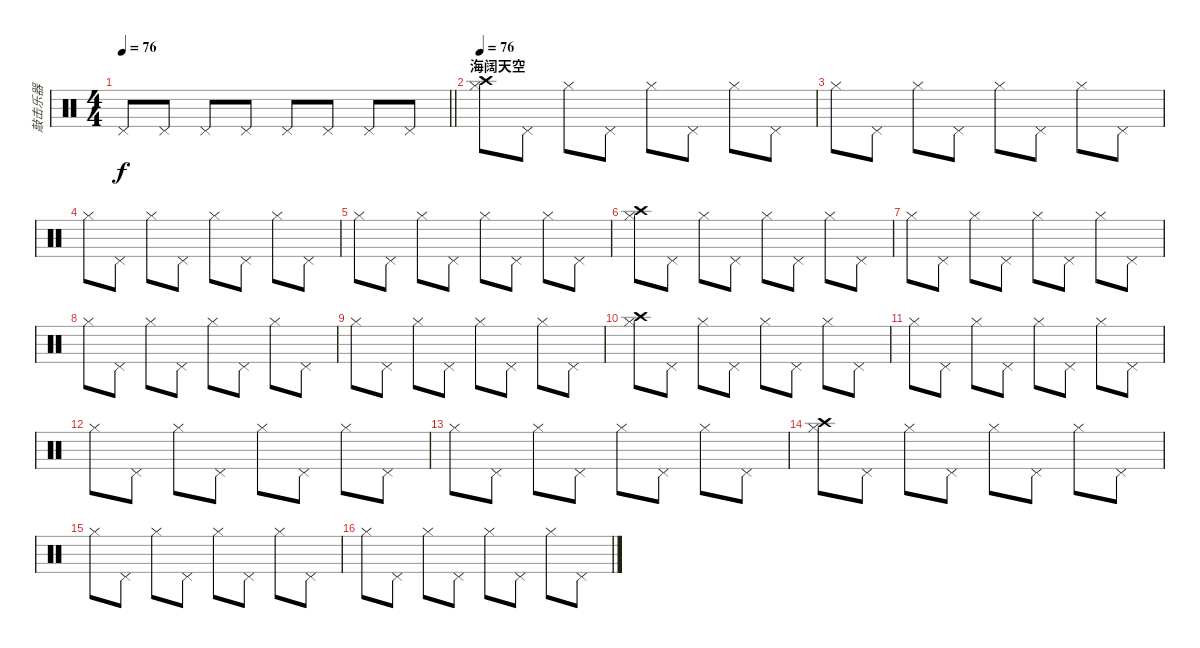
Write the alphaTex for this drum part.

\track ("敲击乐器" "敲击乐器") {instrument percussion}
\staff {score}
\articulation defaults
\ts (4 4)
\tempo 76
\clef neutral
\barLineRight lightlight
\ks c "Pedal Hi-Hat (hit)".8{dy f} "Pedal Hi-Hat (hit)".8 "Pedal Hi-Hat (hit)".8 "Pedal Hi-Hat (hit)".8 "Pedal Hi-Hat (hit)".8 "Pedal Hi-Hat (hit)".8 "Pedal Hi-Hat (hit)".8 "Pedal Hi-Hat (hit)".8
|
\section ("" "海阔天空")
\tempo 76
("Hi-Hat (closed)" "Crash high (hit)").8 "Pedal Hi-Hat (hit)".8 "Hi-Hat (closed)".8 "Pedal Hi-Hat (hit)".8 "Hi-Hat (closed)".8 "Pedal Hi-Hat (hit)".8 "Hi-Hat (closed)".8 "Pedal Hi-Hat (hit)".8 |
"Hi-Hat (closed)".8 "Pedal Hi-Hat (hit)".8 "Hi-Hat (closed)".8 "Pedal Hi-Hat (hit)".8 "Hi-Hat (closed)".8 "Pedal Hi-Hat (hit)".8 "Hi-Hat (closed)".8 "Pedal Hi-Hat (hit)".8 |
"Hi-Hat (closed)".8 "Pedal Hi-Hat (hit)".8 "Hi-Hat (closed)".8 "Pedal Hi-Hat (hit)".8 "Hi-Hat (closed)".8 "Pedal Hi-Hat (hit)".8 "Hi-Hat (closed)".8 "Pedal Hi-Hat (hit)".8 |
"Hi-Hat (closed)".8 "Pedal Hi-Hat (hit)".8 "Hi-Hat (closed)".8 "Pedal Hi-Hat (hit)".8 "Hi-Hat (closed)".8 "Pedal Hi-Hat (hit)".8 "Hi-Hat (closed)".8 "Pedal Hi-Hat (hit)".8 |
("Hi-Hat (closed)" "Crash high (hit)").8 "Pedal Hi-Hat (hit)".8 "Hi-Hat (closed)".8 "Pedal Hi-Hat (hit)".8 "Hi-Hat (closed)".8 "Pedal Hi-Hat (hit)".8 "Hi-Hat (closed)".8 "Pedal Hi-Hat (hit)".8 |
"Hi-Hat (closed)".8 "Pedal Hi-Hat (hit)".8 "Hi-Hat (closed)".8 "Pedal Hi-Hat (hit)".8 "Hi-Hat (closed)".8 "Pedal Hi-Hat (hit)".8 "Hi-Hat (closed)".8 "Pedal Hi-Hat (hit)".8 |
"Hi-Hat (closed)".8 "Pedal Hi-Hat (hit)".8 "Hi-Hat (closed)".8 "Pedal Hi-Hat (hit)".8 "Hi-Hat (closed)".8 "Pedal Hi-Hat (hit)".8 "Hi-Hat (closed)".8 "Pedal Hi-Hat (hit)".8 |
"Hi-Hat (closed)".8 "Pedal Hi-Hat (hit)".8 "Hi-Hat (closed)".8 "Pedal Hi-Hat (hit)".8 "Hi-Hat (closed)".8 "Pedal Hi-Hat (hit)".8 "Hi-Hat (closed)".8 "Pedal Hi-Hat (hit)".8 |
("Hi-Hat (closed)" "Crash high (hit)").8 "Pedal Hi-Hat (hit)".8 "Hi-Hat (closed)".8 "Pedal Hi-Hat (hit)".8 "Hi-Hat (closed)".8 "Pedal Hi-Hat (hit)".8 "Hi-Hat (closed)".8 "Pedal Hi-Hat (hit)".8 |
"Hi-Hat (closed)".8 "Pedal Hi-Hat (hit)".8 "Hi-Hat (closed)".8 "Pedal Hi-Hat (hit)".8 "Hi-Hat (closed)".8 "Pedal Hi-Hat (hit)".8 "Hi-Hat (closed)".8 "Pedal Hi-Hat (hit)".8 |
"Hi-Hat (closed)".8 "Pedal Hi-Hat (hit)".8 "Hi-Hat (closed)".8 "Pedal Hi-Hat (hit)".8 "Hi-Hat (closed)".8 "Pedal Hi-Hat (hit)".8 "Hi-Hat (closed)".8 "Pedal Hi-Hat (hit)".8 |
"Hi-Hat (closed)".8 "Pedal Hi-Hat (hit)".8 "Hi-Hat (closed)".8 "Pedal Hi-Hat (hit)".8 "Hi-Hat (closed)".8 "Pedal Hi-Hat (hit)".8 "Hi-Hat (closed)".8 "Pedal Hi-Hat (hit)".8 |
("Hi-Hat (closed)" "Crash high (hit)").8 "Pedal Hi-Hat (hit)".8 "Hi-Hat (closed)".8 "Pedal Hi-Hat (hit)".8 "Hi-Hat (closed)".8 "Pedal Hi-Hat (hit)".8 "Hi-Hat (closed)".8 "Pedal Hi-Hat (hit)".8 |
"Hi-Hat (closed)".8 "Pedal Hi-Hat (hit)".8 "Hi-Hat (closed)".8 "Pedal Hi-Hat (hit)".8 "Hi-Hat (closed)".8 "Pedal Hi-Hat (hit)".8 "Hi-Hat (closed)".8 "Pedal Hi-Hat (hit)".8 |
"Hi-Hat (closed)".8 "Pedal Hi-Hat (hit)".8 "Hi-Hat (closed)".8 "Pedal Hi-Hat (hit)".8 "Hi-Hat (closed)".8 "Pedal Hi-Hat (hit)".8 "Hi-Hat (closed)".8 "Pedal Hi-Hat (hit)".8
